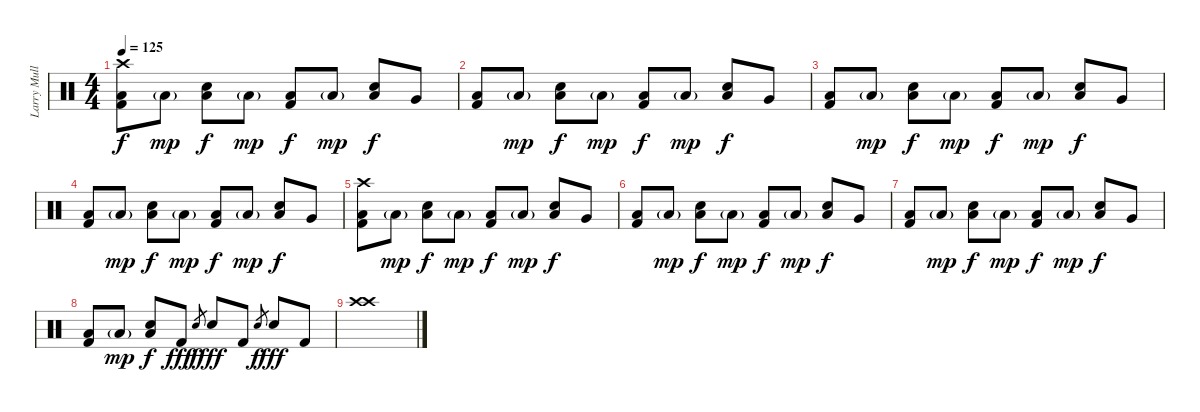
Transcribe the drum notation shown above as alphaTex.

\track ("Larry Mullen Jr" "Larry Mull") {instrument percussion}
\staff {score}
\articulation defaults
\ts (4 4)
\tempo 125
\clef neutral
\ks c
("Crash high (hit)" "Kick (hit) 2" "Low Floor Tom (hit)").8{dy f} "Low Floor Tom (hit)"{g}.8{dy mp} ("Snare (hit) 2" "Low Floor Tom (hit)").8{dy f} "Low Floor Tom (hit)"{g}.8{dy mp} ("Kick (hit) 2" "Low Floor Tom (hit)").8{dy f} "Low Floor Tom (hit)"{g}.8{dy mp} ("Snare (hit) 2" "Low Floor Tom (hit)").8{dy f} "Very Low Tom (hit)".8 |
("Kick (hit) 2" "Low Floor Tom (hit)").8 "Low Floor Tom (hit)"{g}.8{dy mp} ("Snare (hit) 2" "Low Floor Tom (hit)").8{dy f} "Low Floor Tom (hit)"{g}.8{dy mp} ("Kick (hit) 2" "Low Floor Tom (hit)").8{dy f} "Low Floor Tom (hit)"{g}.8{dy mp} ("Snare (hit) 2" "Low Floor Tom (hit)").8{dy f} "Very Low Tom (hit)".8 |
("Kick (hit) 2" "Low Floor Tom (hit)").8 "Low Floor Tom (hit)"{g}.8{dy mp} ("Snare (hit) 2" "Low Floor Tom (hit)").8{dy f} "Low Floor Tom (hit)"{g}.8{dy mp} ("Kick (hit) 2" "Low Floor Tom (hit)").8{dy f} "Low Floor Tom (hit)"{g}.8{dy mp} ("Snare (hit) 2" "Low Floor Tom (hit)").8{dy f} "Very Low Tom (hit)".8 |
("Kick (hit) 2" "Low Floor Tom (hit)").8 "Low Floor Tom (hit)"{g}.8{dy mp} ("Snare (hit) 2" "Low Floor Tom (hit)").8{dy f} "Low Floor Tom (hit)"{g}.8{dy mp} ("Kick (hit) 2" "Low Floor Tom (hit)").8{dy f} "Low Floor Tom (hit)"{g}.8{dy mp} ("Snare (hit) 2" "Low Floor Tom (hit)").8{dy f} "Very Low Tom (hit)".8 |
("Crash high (hit)" "Kick (hit) 2" "Low Floor Tom (hit)").8 "Low Floor Tom (hit)"{g}.8{dy mp} ("Snare (hit) 2" "Low Floor Tom (hit)").8{dy f} "Low Floor Tom (hit)"{g}.8{dy mp} ("Kick (hit) 2" "Low Floor Tom (hit)").8{dy f} "Low Floor Tom (hit)"{g}.8{dy mp} ("Snare (hit) 2" "Low Floor Tom (hit)").8{dy f} "Very Low Tom (hit)".8 |
("Kick (hit) 2" "Low Floor Tom (hit)").8 "Low Floor Tom (hit)"{g}.8{dy mp} ("Snare (hit) 2" "Low Floor Tom (hit)").8{dy f} "Low Floor Tom (hit)"{g}.8{dy mp} ("Kick (hit) 2" "Low Floor Tom (hit)").8{dy f} "Low Floor Tom (hit)"{g}.8{dy mp} ("Snare (hit) 2" "Low Floor Tom (hit)").8{dy f} "Very Low Tom (hit)".8 |
("Kick (hit) 2" "Low Floor Tom (hit)").8 "Low Floor Tom (hit)"{g}.8{dy mp} ("Snare (hit) 2" "Low Floor Tom (hit)").8{dy f} "Low Floor Tom (hit)"{g}.8{dy mp} ("Kick (hit) 2" "Low Floor Tom (hit)").8{dy f} "Low Floor Tom (hit)"{g}.8{dy mp} ("Snare (hit) 2" "Low Floor Tom (hit)").8{dy f} "Very Low Tom (hit)".8 |
("Kick (hit) 2" "Low Floor Tom (hit)").8 "Low Floor Tom (hit)"{g}.8{dy mp} ("Snare (hit) 2" "Low Floor Tom (hit)").8{dy f} "Kick (hit) 2".8{dy fff} "Snare (hit) 2".8{gr dy f} "Snare (hit) 2".8{dy fff} "Kick (hit) 2".8 "Snare (hit) 2".8{gr dy f} "Snare (hit) 2".8{dy fff} "Kick (hit) 2".8 |
("Crash high (hit)" "Crash high (hit)").1
